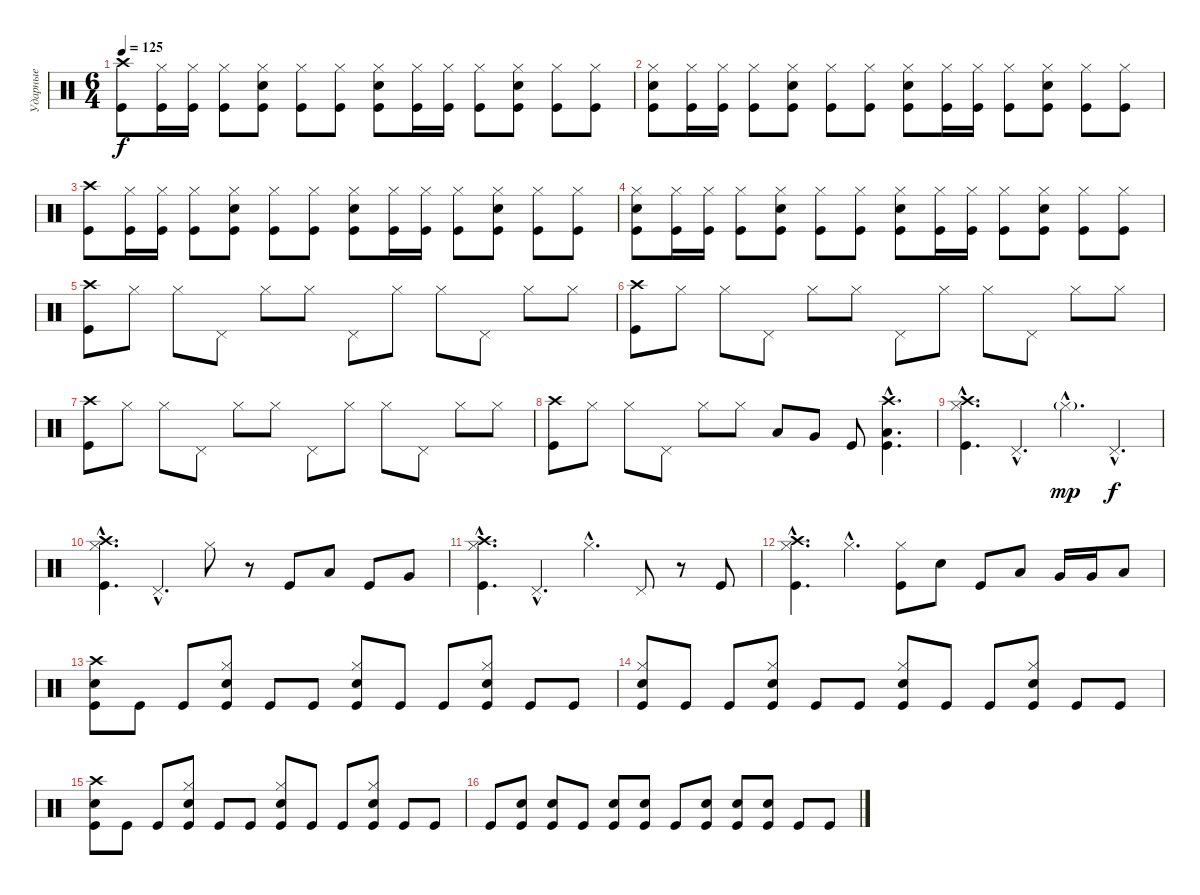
\track ("Ударные" "Ударные") {instrument percussion}
\staff {score}
\articulation defaults
\ts (6 4)
\tempo 125
\clef neutral
\ks c
("Crash high (hit)" "Kick (hit)").8{dy f} ("Hi-Hat (closed)" "Kick (hit)").16 ("Hi-Hat (closed)" "Kick (hit)").16 ("Hi-Hat (closed)" "Kick (hit)").8 ("Hi-Hat (closed)" "Electric Snare (hit)" "Kick (hit)").8 ("Hi-Hat (closed)" "Kick (hit)").8 ("Hi-Hat (closed)" "Kick (hit)").8 ("Hi-Hat (closed)" "Electric Snare (hit)" "Kick (hit)").8 ("Hi-Hat (closed)" "Kick (hit)").16 ("Hi-Hat (closed)" "Kick (hit)").16 ("Hi-Hat (closed)" "Kick (hit)").8 ("Hi-Hat (closed)" "Electric Snare (hit)" "Kick (hit)").8 ("Hi-Hat (closed)" "Kick (hit)").8 ("Hi-Hat (closed)" "Kick (hit)").8 |
("Hi-Hat (closed)" "Electric Snare (hit)" "Kick (hit)").8 ("Hi-Hat (closed)" "Kick (hit)").16 ("Hi-Hat (closed)" "Kick (hit)").16 ("Hi-Hat (closed)" "Kick (hit)").8 ("Hi-Hat (closed)" "Electric Snare (hit)" "Kick (hit)").8 ("Hi-Hat (closed)" "Kick (hit)").8 ("Hi-Hat (closed)" "Kick (hit)").8 ("Hi-Hat (closed)" "Electric Snare (hit)" "Kick (hit)").8 ("Hi-Hat (closed)" "Kick (hit)").16 ("Hi-Hat (closed)" "Kick (hit)").16 ("Hi-Hat (closed)" "Kick (hit)").8 ("Hi-Hat (closed)" "Electric Snare (hit)" "Kick (hit)").8 ("Hi-Hat (closed)" "Kick (hit)").8 ("Hi-Hat (closed)" "Kick (hit)").8 |
("Crash high (hit)" "Kick (hit)").8 ("Hi-Hat (closed)" "Kick (hit)").16 ("Hi-Hat (closed)" "Kick (hit)").16 ("Hi-Hat (closed)" "Kick (hit)").8 ("Hi-Hat (closed)" "Electric Snare (hit)" "Kick (hit)").8 ("Hi-Hat (closed)" "Kick (hit)").8 ("Hi-Hat (closed)" "Kick (hit)").8 ("Hi-Hat (closed)" "Electric Snare (hit)" "Kick (hit)").8 ("Hi-Hat (closed)" "Kick (hit)").16 ("Hi-Hat (closed)" "Kick (hit)").16 ("Hi-Hat (closed)" "Kick (hit)").8 ("Hi-Hat (closed)" "Electric Snare (hit)" "Kick (hit)").8 ("Hi-Hat (closed)" "Kick (hit)").8 ("Hi-Hat (closed)" "Kick (hit)").8 |
("Hi-Hat (closed)" "Electric Snare (hit)" "Kick (hit)").8 ("Hi-Hat (closed)" "Kick (hit)").16 ("Hi-Hat (closed)" "Kick (hit)").16 ("Hi-Hat (closed)" "Kick (hit)").8 ("Hi-Hat (closed)" "Electric Snare (hit)" "Kick (hit)").8 ("Hi-Hat (closed)" "Kick (hit)").8 ("Hi-Hat (closed)" "Kick (hit)").8 ("Hi-Hat (closed)" "Electric Snare (hit)" "Kick (hit)").8 ("Hi-Hat (closed)" "Kick (hit)").16 ("Hi-Hat (closed)" "Kick (hit)").16 ("Hi-Hat (closed)" "Kick (hit)").8 ("Hi-Hat (closed)" "Electric Snare (hit)" "Kick (hit)").8 ("Hi-Hat (closed)" "Kick (hit)").8 ("Hi-Hat (closed)" "Kick (hit)").8 |
("Crash high (hit)" "Kick (hit)").8 "Hi-Hat (closed)".8 "Hi-Hat (closed)".8 "Pedal Hi-Hat (hit)".8 "Hi-Hat (closed)".8 "Hi-Hat (closed)".8 "Pedal Hi-Hat (hit)".8 "Hi-Hat (closed)".8 "Hi-Hat (closed)".8 "Pedal Hi-Hat (hit)".8 "Hi-Hat (closed)".8 "Hi-Hat (closed)".8 |
("Crash high (hit)" "Kick (hit)").8 "Hi-Hat (closed)".8 "Hi-Hat (closed)".8 "Pedal Hi-Hat (hit)".8 "Hi-Hat (closed)".8 "Hi-Hat (closed)".8 "Pedal Hi-Hat (hit)".8 "Hi-Hat (closed)".8 "Hi-Hat (closed)".8 "Pedal Hi-Hat (hit)".8 "Hi-Hat (closed)".8 "Hi-Hat (closed)".8 |
("Crash high (hit)" "Kick (hit)").8 "Hi-Hat (closed)".8 "Hi-Hat (closed)".8 "Pedal Hi-Hat (hit)".8 "Hi-Hat (closed)".8 "Hi-Hat (closed)".8 "Pedal Hi-Hat (hit)".8 "Hi-Hat (closed)".8 "Hi-Hat (closed)".8 "Pedal Hi-Hat (hit)".8 "Hi-Hat (closed)".8 "Hi-Hat (closed)".8 |
("Crash high (hit)" "Kick (hit)").8 "Hi-Hat (closed)".8 "Hi-Hat (closed)".8 "Pedal Hi-Hat (hit)".8 "Hi-Hat (closed)".8 "Hi-Hat (closed)".8 "Low Tom (hit)".8 "Very Low Tom (hit)".8 "Kick (hit)".8 ("Crash high (hit)"{hac} "Low Tom (hit)"{hac} "Kick (hit)"{hac}).4{d} |
("Crash high (hit)"{hac} "Hi-Hat (closed)"{hac} "Kick (hit)"{hac}).4{d} "Pedal Hi-Hat (hit)"{hac}.4{d} "Hi-Hat (closed)"{g hac}.4{d dy mp} "Pedal Hi-Hat (hit)"{hac}.4{d dy f} |
("Crash high (hit)"{hac} "Hi-Hat (closed)"{hac} "Kick (hit)"{hac}).4{d} "Pedal Hi-Hat (hit)"{hac}.4{d} "Hi-Hat (closed)".8 r.8 "Kick (hit)".8 "Low Tom (hit)".8 "Kick (hit)".8 "Very Low Tom (hit)".8 |
("Crash high (hit)"{hac} "Hi-Hat (closed)"{hac} "Kick (hit)"{hac}).4{d} "Pedal Hi-Hat (hit)"{hac}.4{d} "Hi-Hat (closed)"{hac}.4{d} "Pedal Hi-Hat (hit)".8 r.8 "Kick (hit)".8 |
("Crash high (hit)"{hac} "Hi-Hat (closed)"{hac} "Kick (hit)"{hac}).4{d} "Hi-Hat (closed)"{hac}.4{d} ("Hi-Hat (closed)" "Kick (hit)").8 "Electric Snare (hit)".8 "Kick (hit)".8 "Low Tom (hit)".8 "Very Low Tom (hit)".16 "Very Low Tom (hit)".16 "Low Tom (hit)".8 |
("Crash high (hit)" "Electric Snare (hit)" "Kick (hit)").8 "Kick (hit)".8 "Kick (hit)".8 ("Hi-Hat (closed)" "Electric Snare (hit)" "Kick (hit)").8 "Kick (hit)".8 "Kick (hit)".8 ("Hi-Hat (closed)" "Electric Snare (hit)" "Kick (hit)").8 "Kick (hit)".8 "Kick (hit)".8 ("Hi-Hat (closed)" "Electric Snare (hit)" "Kick (hit)").8 "Kick (hit)".8 "Kick (hit)".8 |
("Hi-Hat (closed)" "Electric Snare (hit)" "Kick (hit)").8 "Kick (hit)".8 "Kick (hit)".8 ("Hi-Hat (closed)" "Electric Snare (hit)" "Kick (hit)").8 "Kick (hit)".8 "Kick (hit)".8 ("Hi-Hat (closed)" "Electric Snare (hit)" "Kick (hit)").8 "Kick (hit)".8 "Kick (hit)".8 ("Hi-Hat (closed)" "Electric Snare (hit)" "Kick (hit)").8 "Kick (hit)".8 "Kick (hit)".8 |
("Crash high (hit)" "Electric Snare (hit)" "Kick (hit)").8 "Kick (hit)".8 "Kick (hit)".8 ("Hi-Hat (closed)" "Electric Snare (hit)" "Kick (hit)").8 "Kick (hit)".8 "Kick (hit)".8 ("Hi-Hat (closed)" "Electric Snare (hit)" "Kick (hit)").8 "Kick (hit)".8 "Kick (hit)".8 ("Hi-Hat (closed)" "Electric Snare (hit)" "Kick (hit)").8 "Kick (hit)".8 "Kick (hit)".8 |
"Kick (hit)".8 ("Electric Snare (hit)" "Kick (hit)").8 ("Electric Snare (hit)" "Kick (hit)").8 "Kick (hit)".8 ("Electric Snare (hit)" "Kick (hit)").8 ("Electric Snare (hit)" "Kick (hit)").8 "Kick (hit)".8 ("Electric Snare (hit)" "Kick (hit)").8 ("Electric Snare (hit)" "Kick (hit)").8 ("Electric Snare (hit)" "Kick (hit)").8 "Kick (hit)".8 "Kick (hit)".8
